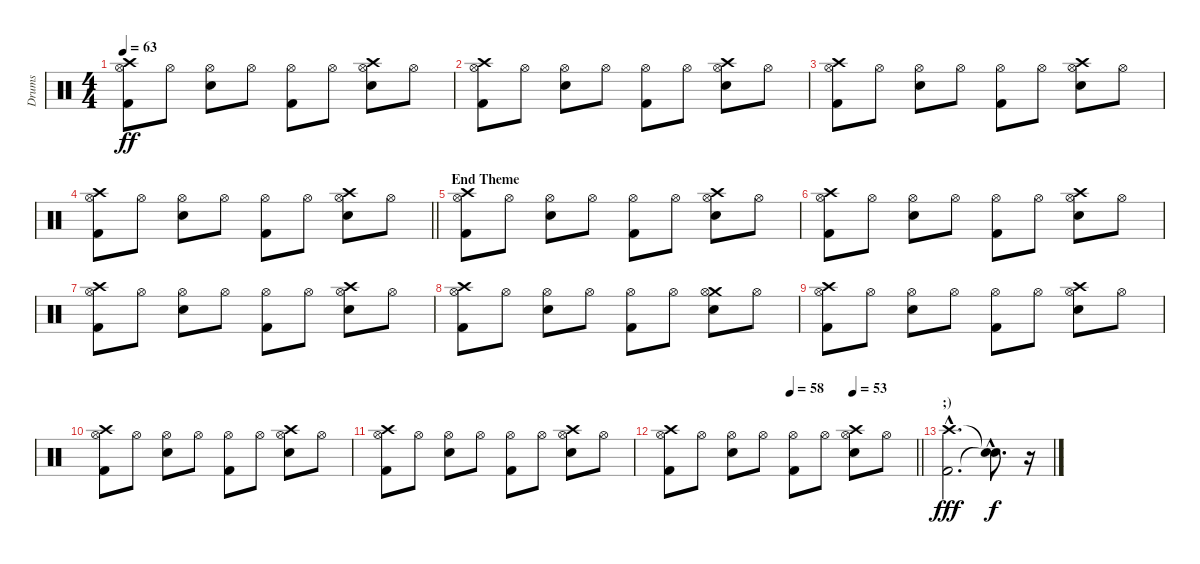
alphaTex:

\track ("Drums" "Drums") {instrument percussion}
\staff {score}
\articulation defaults
\ts (4 4)
\tempo 63
\clef neutral
\ks c
("Kick (hit) 2" "Crash high (hit)" "Hi-Hat (open)").8{dy ff} "Hi-Hat (open)".8 ("Electric Snare (hit)" "Hi-Hat (open)").8 "Hi-Hat (open)".8 ("Kick (hit) 2" "Hi-Hat (open)").8 "Hi-Hat (open)".8 ("Electric Snare (hit)" "Crash high (hit)" "Hi-Hat (open)").8 "Hi-Hat (open)".8 |
("Kick (hit) 2" "Crash high (hit)" "Hi-Hat (open)").8 "Hi-Hat (open)".8 ("Electric Snare (hit)" "Hi-Hat (open)").8 "Hi-Hat (open)".8 ("Kick (hit) 2" "Hi-Hat (open)").8 "Hi-Hat (open)".8 ("Electric Snare (hit)" "Crash high (hit)" "Hi-Hat (open)").8 "Hi-Hat (open)".8 |
("Kick (hit) 2" "Crash high (hit)" "Hi-Hat (open)").8 "Hi-Hat (open)".8 ("Electric Snare (hit)" "Hi-Hat (open)").8 "Hi-Hat (open)".8 ("Kick (hit) 2" "Hi-Hat (open)").8 "Hi-Hat (open)".8 ("Electric Snare (hit)" "Crash high (hit)" "Hi-Hat (open)").8 "Hi-Hat (open)".8 |
\barLineRight lightlight
("Kick (hit) 2" "Crash high (hit)" "Hi-Hat (open)").8 "Hi-Hat (open)".8 ("Electric Snare (hit)" "Hi-Hat (open)").8 "Hi-Hat (open)".8 ("Kick (hit) 2" "Hi-Hat (open)").8 "Hi-Hat (open)".8 ("Electric Snare (hit)" "Crash high (hit)" "Hi-Hat (open)").8 "Hi-Hat (open)".8 |
\section ("" "End Theme")
("Kick (hit) 2" "Crash high (hit)" "Hi-Hat (open)").8 "Hi-Hat (open)".8 ("Electric Snare (hit)" "Hi-Hat (open)").8 "Hi-Hat (open)".8 ("Kick (hit) 2" "Hi-Hat (open)").8 "Hi-Hat (open)".8 ("Electric Snare (hit)" "Crash high (hit)" "Hi-Hat (open)").8 "Hi-Hat (open)".8 |
("Kick (hit) 2" "Crash high (hit)" "Hi-Hat (open)").8 "Hi-Hat (open)".8 ("Electric Snare (hit)" "Hi-Hat (open)").8 "Hi-Hat (open)".8 ("Kick (hit) 2" "Hi-Hat (open)").8 "Hi-Hat (open)".8 ("Electric Snare (hit)" "Crash high (hit)" "Hi-Hat (open)").8 "Hi-Hat (open)".8 |
("Kick (hit) 2" "Crash high (hit)" "Hi-Hat (open)").8 "Hi-Hat (open)".8 ("Electric Snare (hit)" "Hi-Hat (open)").8 "Hi-Hat (open)".8 ("Kick (hit) 2" "Hi-Hat (open)").8 "Hi-Hat (open)".8 ("Electric Snare (hit)" "Crash high (hit)" "Hi-Hat (open)").8 "Hi-Hat (open)".8 |
("Kick (hit) 2" "Crash high (hit)" "Hi-Hat (open)").8 "Hi-Hat (open)".8 ("Electric Snare (hit)" "Hi-Hat (open)").8 "Hi-Hat (open)".8 ("Kick (hit) 2" "Hi-Hat (open)").8 "Hi-Hat (open)".8 ("Electric Snare (hit)" "Crash medium (hit)" "Hi-Hat (open)").8 "Hi-Hat (open)".8 |
("Kick (hit) 2" "Crash high (hit)" "Hi-Hat (open)").8 "Hi-Hat (open)".8 ("Electric Snare (hit)" "Hi-Hat (open)").8 "Hi-Hat (open)".8 ("Kick (hit) 2" "Hi-Hat (open)").8 "Hi-Hat (open)".8 ("Electric Snare (hit)" "Crash high (hit)" "Hi-Hat (open)").8 "Hi-Hat (open)".8 |
("Kick (hit) 2" "Crash high (hit)" "Hi-Hat (open)").8 "Hi-Hat (open)".8 ("Electric Snare (hit)" "Hi-Hat (open)").8 "Hi-Hat (open)".8 ("Kick (hit) 2" "Hi-Hat (open)").8 "Hi-Hat (open)".8 ("Electric Snare (hit)" "Crash high (hit)" "Hi-Hat (open)").8 "Hi-Hat (open)".8 |
("Kick (hit) 2" "Crash high (hit)" "Hi-Hat (open)").8 "Hi-Hat (open)".8 ("Electric Snare (hit)" "Hi-Hat (open)").8 "Hi-Hat (open)".8 ("Kick (hit) 2" "Hi-Hat (open)").8 "Hi-Hat (open)".8 ("Electric Snare (hit)" "Crash high (hit)" "Hi-Hat (open)").8 "Hi-Hat (open)".8 |
\tempo (58 0.5)
\tempo (53 0.75)
\barLineRight lightlight
("Kick (hit) 2" "Crash high (hit)" "Hi-Hat (open)").8 "Hi-Hat (open)".8 ("Electric Snare (hit)" "Hi-Hat (open)").8 "Hi-Hat (open)".8 ("Kick (hit) 2" "Hi-Hat (open)").8 "Hi-Hat (open)".8 ("Electric Snare (hit)" "Crash high (hit)" "Hi-Hat (open)").8 "Hi-Hat (open)".8 |
\section ("" ";)")
("Kick (hit) 2"{hac} "Crash high (hit)"{hac}).2{d dy fff} ("Snare (hit)"{hac t} "Snare (hit)"{hac t}).8{d dy f} r.16
